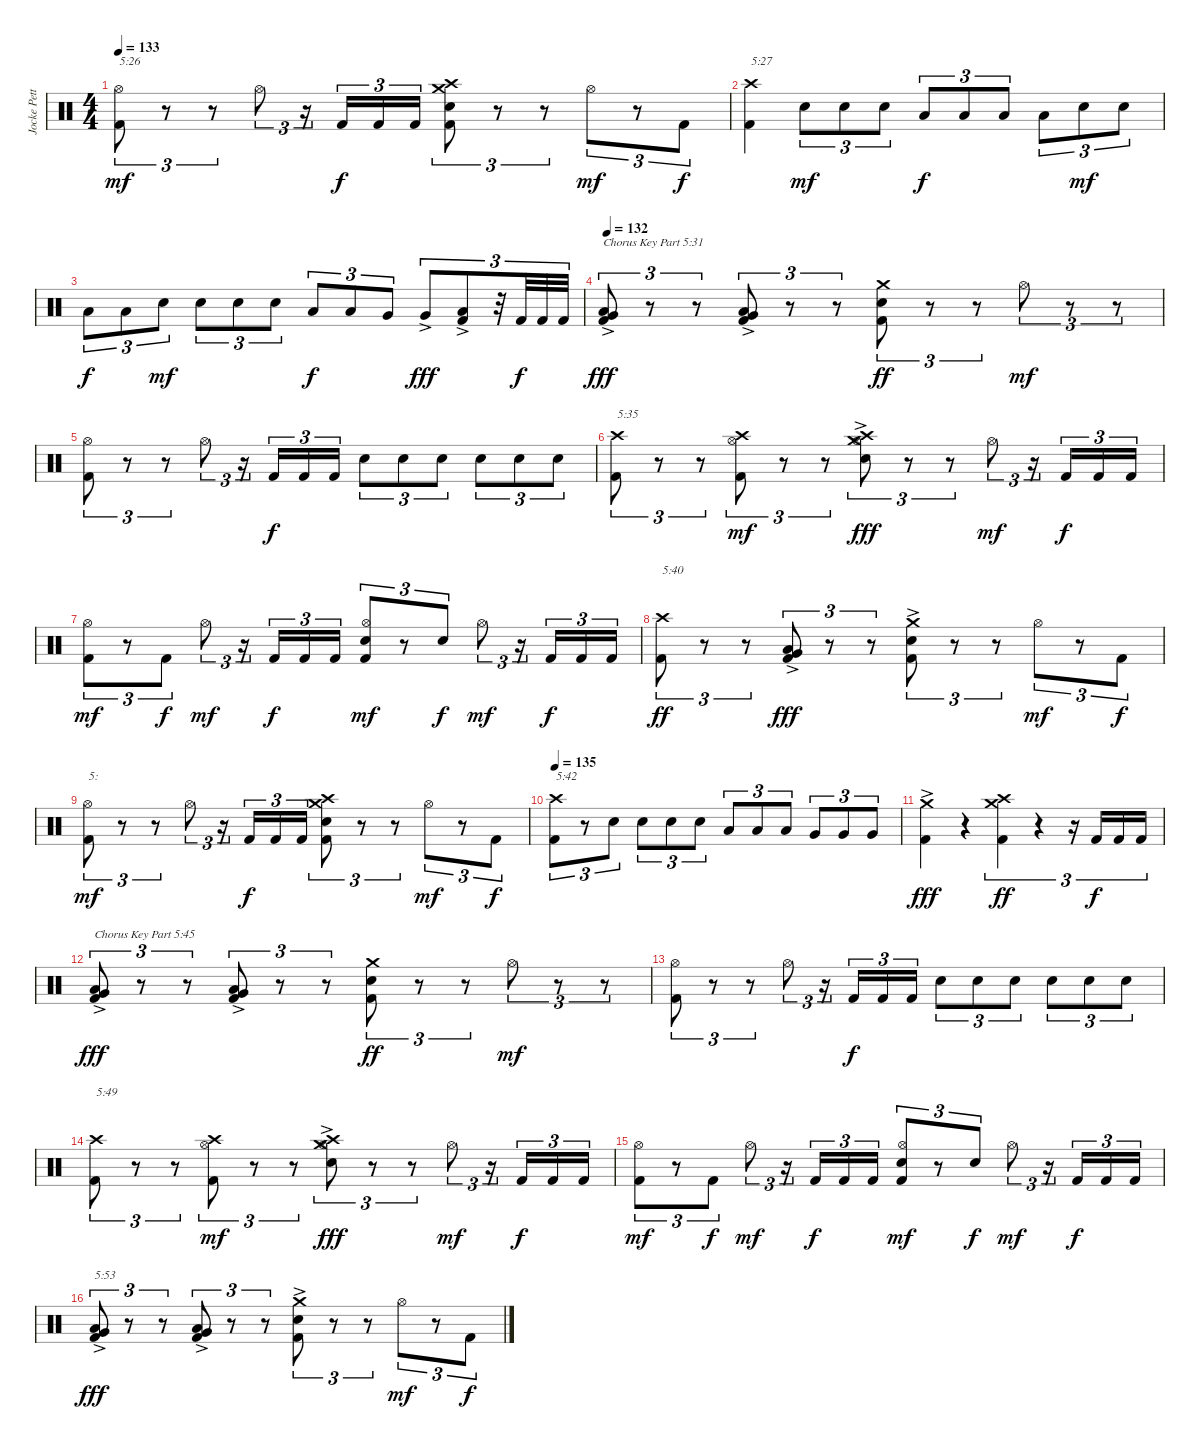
\track ("Jocke Pettersson" "Jocke Pett") {instrument percussion}
\staff {score}
\articulation defaults
\ts (4 4)
\tempo 133
\clef neutral
\ks c
("Kick (hit) 2" "Hi-Hat (open)").8{tu (3 2) txt "5:26" dy mf} r.8{tu (3 2)} r.8{tu (3 2)} "Hi-Hat (open)".8{tu (3 2)} r.16{tu (3 2)} "Kick (hit) 2".16{tu (3 2) dy f} "Kick (hit) 2".16{tu (3 2)} "Kick (hit) 2".16{tu (3 2)} ("Kick (hit) 2" "Electric Snare (hit)" "Crash medium (hit)" "Crash high (hit)").8{tu (3 2)} r.8{tu (3 2)} r.8{tu (3 2)} "Hi-Hat (open)".8{tu (3 2) dy mf} r.8{tu (3 2)} "Kick (hit) 2".8{tu (3 2) dy f} |
("Kick (hit) 2" "Crash high (hit)").4{txt "5:27"} "Electric Snare (hit)".8{tu (3 2) dy mf} "Electric Snare (hit)".8{tu (3 2)} "Electric Snare (hit)".8{tu (3 2)} "Low Tom (hit)".8{tu (3 2) dy f} "Low Tom (hit)".8{tu (3 2)} "Low Tom (hit)".8{tu (3 2)} "Low Tom (hit)".8{tu (3 2)} "Electric Snare (hit)".8{tu (3 2) dy mf} "Electric Snare (hit)".8{tu (3 2)} |
"Low Tom (hit)".8{tu (3 2) dy f} "Low Tom (hit)".8{tu (3 2)} "Electric Snare (hit)".8{tu (3 2) dy mf} "Electric Snare (hit)".8{tu (3 2)} "Electric Snare (hit)".8{tu (3 2)} "Electric Snare (hit)".8{tu (3 2)} "Low Tom (hit)".8{tu (3 2) dy f} "Low Tom (hit)".8{tu (3 2)} "Very Low Tom (hit)".8{tu (3 2)} "Very Low Tom (hit)"{ac}.8{tu (3 2) dy fff} ("Kick (hit) 2" "Low Floor Tom (hit)"{ac}).8{tu (3 2)} r.32{tu (3 2)} "Kick (hit) 2".32{tu (3 2) dy f} "Kick (hit) 2".32{tu (3 2)} "Kick (hit) 2".32{tu (3 2)} |
\tempo 132
("Kick (hit) 2" "Very Low Tom (hit)"{ac} "Low Tom (hit)").8{tu (3 2) txt "Chorus Key Part 5:31" dy fff} r.8{tu (3 2)} r.8{tu (3 2)} ("Kick (hit) 2" "Very Low Tom (hit)"{ac} "Low Tom (hit)"{ac}).8{tu (3 2)} r.8{tu (3 2)} r.8{tu (3 2)} ("Kick (hit) 2" "Electric Snare (hit)" "Crash medium (hit)").8{tu (3 2) dy ff} r.8{tu (3 2)} r.8{tu (3 2)} "Hi-Hat (open)".8{tu (3 2) dy mf} r.8{tu (3 2)} r.8{tu (3 2)} |
("Kick (hit) 2" "Hi-Hat (open)").8{tu (3 2)} r.8{tu (3 2)} r.8{tu (3 2)} "Hi-Hat (open)".8{tu (3 2)} r.16{tu (3 2)} "Kick (hit) 2".16{tu (3 2) dy f} "Kick (hit) 2".16{tu (3 2)} "Kick (hit) 2".16{tu (3 2)} "Electric Snare (hit)".8{tu (3 2)} "Electric Snare (hit)".8{tu (3 2)} "Electric Snare (hit)".8{tu (3 2)} "Electric Snare (hit)".8{tu (3 2)} "Electric Snare (hit)".8{tu (3 2)} "Electric Snare (hit)".8{tu (3 2)} |
("Kick (hit) 2" "Crash high (hit)").8{tu (3 2) txt "5:35"} r.8{tu (3 2)} r.8{tu (3 2)} ("Kick (hit) 2" "Hi-Hat (open)" "Crash high (hit)").8{tu (3 2) dy mf} r.8{tu (3 2)} r.8{tu (3 2)} ("Electric Snare (hit)" "Hi-Hat (open)" "Crash high (hit)" "Crash medium (hit)"{ac}).8{tu (3 2) dy fff} r.8{tu (3 2)} r.8{tu (3 2)} "Hi-Hat (open)".8{tu (3 2) dy mf} r.16{tu (3 2)} "Kick (hit) 2".16{tu (3 2) dy f} "Kick (hit) 2".16{tu (3 2)} "Kick (hit) 2".16{tu (3 2)} |
("Kick (hit) 2" "Hi-Hat (open)").8{tu (3 2) dy mf} r.8{tu (3 2)} "Kick (hit) 2".8{tu (3 2) dy f} "Hi-Hat (open)".8{tu (3 2) dy mf} r.16{tu (3 2)} "Kick (hit) 2".16{tu (3 2) dy f} "Kick (hit) 2".16{tu (3 2)} "Kick (hit) 2".16{tu (3 2)} ("Kick (hit) 2" "Electric Snare (hit)" "Hi-Hat (open)").8{tu (3 2) dy mf} r.8{tu (3 2)} "Electric Snare (hit)".8{tu (3 2) dy f} "Hi-Hat (open)".8{tu (3 2) dy mf} r.16{tu (3 2)} "Kick (hit) 2".16{tu (3 2) dy f} "Kick (hit) 2".16{tu (3 2)} "Kick (hit) 2".16{tu (3 2)} |
("Kick (hit) 2" "Crash high (hit)").8{tu (3 2) txt "5:40" dy ff} r.8{tu (3 2)} r.8{tu (3 2)} ("Kick (hit) 2" "Very Low Tom (hit)"{ac} "Low Tom (hit)"{ac}).8{tu (3 2) dy fff} r.8{tu (3 2)} r.8{tu (3 2)} ("Kick (hit) 2" "Electric Snare (hit)" "Crash medium (hit)"{ac}).8{tu (3 2)} r.8{tu (3 2)} r.8{tu (3 2)} "Hi-Hat (open)".8{tu (3 2) dy mf} r.8{tu (3 2)} "Kick (hit) 2".8{tu (3 2) dy f} |
("Kick (hit) 2" "Hi-Hat (open)").8{tu (3 2) txt "5:" dy mf} r.8{tu (3 2)} r.8{tu (3 2)} "Hi-Hat (open)".8{tu (3 2)} r.16{tu (3 2)} "Kick (hit) 2".16{tu (3 2) dy f} "Kick (hit) 2".16{tu (3 2)} "Kick (hit) 2".16{tu (3 2)} ("Kick (hit) 2" "Electric Snare (hit)" "Crash medium (hit)" "Crash high (hit)").8{tu (3 2)} r.8{tu (3 2)} r.8{tu (3 2)} "Hi-Hat (open)".8{tu (3 2) dy mf} r.8{tu (3 2)} "Kick (hit) 2".8{tu (3 2) dy f} |
\tempo 135
("Kick (hit) 2" "Crash high (hit)").8{tu (3 2) txt "5:42"} r.8{tu (3 2)} "Electric Snare (hit)".8{tu (3 2)} "Electric Snare (hit)".8{tu (3 2)} "Electric Snare (hit)".8{tu (3 2)} "Electric Snare (hit)".8{tu (3 2)} "Low Tom (hit)".8{tu (3 2)} "Low Tom (hit)".8{tu (3 2)} "Low Tom (hit)".8{tu (3 2)} "Very Low Tom (hit)".8{tu (3 2)} "Very Low Tom (hit)".8{tu (3 2)} "Very Low Tom (hit)".8{tu (3 2)} |
("Kick (hit) 2" "Crash medium (hit)"{ac}).4{dy fff} r.4 ("Kick (hit) 2" "Crash high (hit)" "Crash medium (hit)").4{tu (3 2) dy ff} r.4{tu (3 2)} r.16{tu (3 2)} "Kick (hit) 2".16{tu (3 2) dy f} "Kick (hit) 2".16{tu (3 2)} "Kick (hit) 2".16{tu (3 2)} |
("Kick (hit) 2" "Very Low Tom (hit)"{ac} "Low Tom (hit)").8{tu (3 2) txt "Chorus Key Part 5:45" dy fff} r.8{tu (3 2)} r.8{tu (3 2)} ("Kick (hit) 2" "Very Low Tom (hit)"{ac} "Low Tom (hit)"{ac}).8{tu (3 2)} r.8{tu (3 2)} r.8{tu (3 2)} ("Kick (hit) 2" "Electric Snare (hit)" "Crash medium (hit)").8{tu (3 2) dy ff} r.8{tu (3 2)} r.8{tu (3 2)} "Hi-Hat (open)".8{tu (3 2) dy mf} r.8{tu (3 2)} r.8{tu (3 2)} |
("Kick (hit) 2" "Hi-Hat (open)").8{tu (3 2)} r.8{tu (3 2)} r.8{tu (3 2)} "Hi-Hat (open)".8{tu (3 2)} r.16{tu (3 2)} "Kick (hit) 2".16{tu (3 2) dy f} "Kick (hit) 2".16{tu (3 2)} "Kick (hit) 2".16{tu (3 2)} "Electric Snare (hit)".8{tu (3 2)} "Electric Snare (hit)".8{tu (3 2)} "Electric Snare (hit)".8{tu (3 2)} "Electric Snare (hit)".8{tu (3 2)} "Electric Snare (hit)".8{tu (3 2)} "Electric Snare (hit)".8{tu (3 2)} |
("Kick (hit) 2" "Crash high (hit)").8{tu (3 2) txt "5:49"} r.8{tu (3 2)} r.8{tu (3 2)} ("Kick (hit) 2" "Hi-Hat (open)" "Crash high (hit)").8{tu (3 2) dy mf} r.8{tu (3 2)} r.8{tu (3 2)} ("Electric Snare (hit)" "Hi-Hat (open)" "Crash high (hit)" "Crash medium (hit)"{ac}).8{tu (3 2) dy fff} r.8{tu (3 2)} r.8{tu (3 2)} "Hi-Hat (open)".8{tu (3 2) dy mf} r.16{tu (3 2)} "Kick (hit) 2".16{tu (3 2) dy f} "Kick (hit) 2".16{tu (3 2)} "Kick (hit) 2".16{tu (3 2)} |
("Kick (hit) 2" "Hi-Hat (open)").8{tu (3 2) dy mf} r.8{tu (3 2)} "Kick (hit) 2".8{tu (3 2) dy f} "Hi-Hat (open)".8{tu (3 2) dy mf} r.16{tu (3 2)} "Kick (hit) 2".16{tu (3 2) dy f} "Kick (hit) 2".16{tu (3 2)} "Kick (hit) 2".16{tu (3 2)} ("Kick (hit) 2" "Electric Snare (hit)" "Hi-Hat (open)").8{tu (3 2) dy mf} r.8{tu (3 2)} "Electric Snare (hit)".8{tu (3 2) dy f} "Hi-Hat (open)".8{tu (3 2) dy mf} r.16{tu (3 2)} "Kick (hit) 2".16{tu (3 2) dy f} "Kick (hit) 2".16{tu (3 2)} "Kick (hit) 2".16{tu (3 2)} |
("Kick (hit) 2" "Very Low Tom (hit)"{ac} "Low Tom (hit)"{ac}).8{tu (3 2) txt "5:53" dy fff} r.8{tu (3 2)} r.8{tu (3 2)} ("Kick (hit) 2" "Very Low Tom (hit)"{ac} "Low Tom (hit)"{ac}).8{tu (3 2)} r.8{tu (3 2)} r.8{tu (3 2)} ("Kick (hit) 2" "Electric Snare (hit)" "Crash medium (hit)"{ac}).8{tu (3 2)} r.8{tu (3 2)} r.8{tu (3 2)} "Hi-Hat (open)".8{tu (3 2) dy mf} r.8{tu (3 2)} "Kick (hit) 2".8{tu (3 2) dy f}
